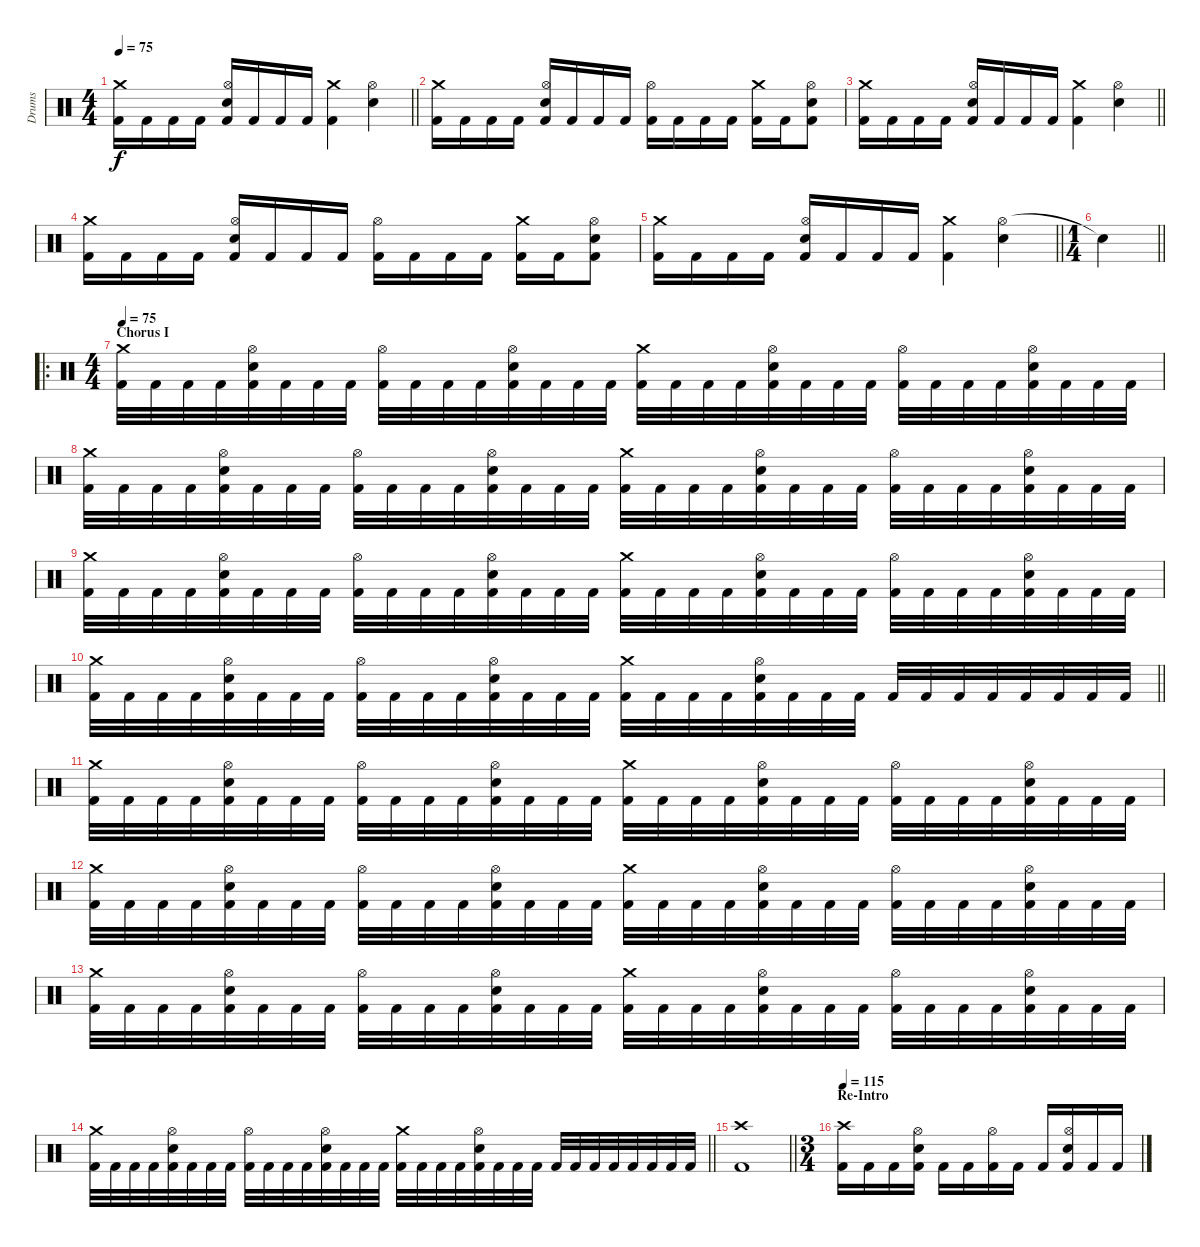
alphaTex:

\track ("Drums" "Drums") {instrument percussion}
\staff {score}
\articulation defaults
\ts (4 4)
\tempo 75
\clef neutral
\barLineRight lightlight
\ks c
("Crash medium (hit)" "Kick (hit) 2").16{dy f} "Kick (hit) 2".16 "Kick (hit) 2".16 "Kick (hit) 2".16 ("Hi-Hat (open)" "Snare (hit) 2" "Kick (hit) 2").16 "Kick (hit) 2".16 "Kick (hit) 2".16 "Kick (hit) 2".16 ("Crash medium (hit)" "Kick (hit) 2").4 ("Hi-Hat (open)" "Snare (hit) 2").4 |
("Crash medium (hit)" "Kick (hit) 2").16 "Kick (hit) 2".16 "Kick (hit) 2".16 "Kick (hit) 2".16 ("Hi-Hat (open)" "Snare (hit) 2" "Kick (hit) 2").16 "Kick (hit) 2".16 "Kick (hit) 2".16 "Kick (hit) 2".16 ("Hi-Hat (open)" "Kick (hit) 2").16 "Kick (hit) 2".16 "Kick (hit) 2".16 "Kick (hit) 2".16 ("Crash medium (hit)" "Kick (hit) 2").16 "Kick (hit) 2".16 ("Hi-Hat (open)" "Snare (hit) 2" "Kick (hit) 2").8 |
\barLineRight lightlight
("Crash medium (hit)" "Kick (hit) 2").16 "Kick (hit) 2".16 "Kick (hit) 2".16 "Kick (hit) 2".16 ("Hi-Hat (open)" "Snare (hit) 2" "Kick (hit) 2").16 "Kick (hit) 2".16 "Kick (hit) 2".16 "Kick (hit) 2".16 ("Crash medium (hit)" "Kick (hit) 2").4 ("Hi-Hat (open)" "Snare (hit) 2").4 |
("Crash medium (hit)" "Kick (hit) 2").16 "Kick (hit) 2".16 "Kick (hit) 2".16 "Kick (hit) 2".16 ("Hi-Hat (open)" "Snare (hit) 2" "Kick (hit) 2").16 "Kick (hit) 2".16 "Kick (hit) 2".16 "Kick (hit) 2".16 ("Hi-Hat (open)" "Kick (hit) 2").16 "Kick (hit) 2".16 "Kick (hit) 2".16 "Kick (hit) 2".16 ("Crash medium (hit)" "Kick (hit) 2").16 "Kick (hit) 2".16 ("Hi-Hat (open)" "Snare (hit) 2" "Kick (hit) 2").8 |
\barLineRight lightlight
("Crash medium (hit)" "Kick (hit) 2").16 "Kick (hit) 2".16 "Kick (hit) 2".16 "Kick (hit) 2".16 ("Hi-Hat (open)" "Snare (hit) 2" "Kick (hit) 2").16 "Kick (hit) 2".16 "Kick (hit) 2".16 "Kick (hit) 2".16 ("Crash medium (hit)" "Kick (hit) 2").4 ("Hi-Hat (open)" "Snare (hit) 2").4 |
\ts (1 4)
\barLineRight lightlight "Snare (hit)"{t}.4
|
\ro
\ts (4 4)
\section ("" "Chorus I")
\tempo 75
("Crash medium (hit)" "Kick (hit) 2").32 "Kick (hit) 2".32 "Kick (hit) 2".32 "Kick (hit) 2".32 ("Hi-Hat (open)" "Snare (hit) 2" "Kick (hit) 2").32 "Kick (hit) 2".32 "Kick (hit) 2".32 "Kick (hit) 2".32 ("Hi-Hat (open)" "Kick (hit) 2").32 "Kick (hit) 2".32 "Kick (hit) 2".32 "Kick (hit) 2".32 ("Hi-Hat (open)" "Snare (hit) 2" "Kick (hit) 2").32 "Kick (hit) 2".32 "Kick (hit) 2".32 "Kick (hit) 2".32 ("Crash medium (hit)" "Kick (hit) 2").32 "Kick (hit) 2".32 "Kick (hit) 2".32 "Kick (hit) 2".32 ("Hi-Hat (open)" "Snare (hit) 2" "Kick (hit) 2").32 "Kick (hit) 2".32 "Kick (hit) 2".32 "Kick (hit) 2".32 ("Hi-Hat (open)" "Kick (hit) 2").32 "Kick (hit) 2".32 "Kick (hit) 2".32 "Kick (hit) 2".32 ("Hi-Hat (open)" "Snare (hit) 2" "Kick (hit) 2").32 "Kick (hit) 2".32 "Kick (hit) 2".32 "Kick (hit) 2".32 |
("Crash medium (hit)" "Kick (hit) 2").32 "Kick (hit) 2".32 "Kick (hit) 2".32 "Kick (hit) 2".32 ("Hi-Hat (open)" "Snare (hit) 2" "Kick (hit) 2").32 "Kick (hit) 2".32 "Kick (hit) 2".32 "Kick (hit) 2".32 ("Hi-Hat (open)" "Kick (hit) 2").32 "Kick (hit) 2".32 "Kick (hit) 2".32 "Kick (hit) 2".32 ("Hi-Hat (open)" "Snare (hit) 2" "Kick (hit) 2").32 "Kick (hit) 2".32 "Kick (hit) 2".32 "Kick (hit) 2".32 ("Crash medium (hit)" "Kick (hit) 2").32 "Kick (hit) 2".32 "Kick (hit) 2".32 "Kick (hit) 2".32 ("Hi-Hat (open)" "Snare (hit) 2" "Kick (hit) 2").32 "Kick (hit) 2".32 "Kick (hit) 2".32 "Kick (hit) 2".32 ("Hi-Hat (open)" "Kick (hit) 2").32 "Kick (hit) 2".32 "Kick (hit) 2".32 "Kick (hit) 2".32 ("Hi-Hat (open)" "Snare (hit) 2" "Kick (hit) 2").32 "Kick (hit) 2".32 "Kick (hit) 2".32 "Kick (hit) 2".32 |
("Crash medium (hit)" "Kick (hit) 2").32 "Kick (hit) 2".32 "Kick (hit) 2".32 "Kick (hit) 2".32 ("Hi-Hat (open)" "Snare (hit) 2" "Kick (hit) 2").32 "Kick (hit) 2".32 "Kick (hit) 2".32 "Kick (hit) 2".32 ("Hi-Hat (open)" "Kick (hit) 2").32 "Kick (hit) 2".32 "Kick (hit) 2".32 "Kick (hit) 2".32 ("Hi-Hat (open)" "Snare (hit) 2" "Kick (hit) 2").32 "Kick (hit) 2".32 "Kick (hit) 2".32 "Kick (hit) 2".32 ("Crash medium (hit)" "Kick (hit) 2").32 "Kick (hit) 2".32 "Kick (hit) 2".32 "Kick (hit) 2".32 ("Hi-Hat (open)" "Snare (hit) 2" "Kick (hit) 2").32 "Kick (hit) 2".32 "Kick (hit) 2".32 "Kick (hit) 2".32 ("Hi-Hat (open)" "Kick (hit) 2").32 "Kick (hit) 2".32 "Kick (hit) 2".32 "Kick (hit) 2".32 ("Hi-Hat (open)" "Snare (hit) 2" "Kick (hit) 2").32 "Kick (hit) 2".32 "Kick (hit) 2".32 "Kick (hit) 2".32 |
\barLineRight lightlight
("Crash medium (hit)" "Kick (hit) 2").32 "Kick (hit) 2".32 "Kick (hit) 2".32 "Kick (hit) 2".32 ("Hi-Hat (open)" "Snare (hit) 2" "Kick (hit) 2").32 "Kick (hit) 2".32 "Kick (hit) 2".32 "Kick (hit) 2".32 ("Hi-Hat (open)" "Kick (hit) 2").32 "Kick (hit) 2".32 "Kick (hit) 2".32 "Kick (hit) 2".32 ("Hi-Hat (open)" "Snare (hit) 2" "Kick (hit) 2").32 "Kick (hit) 2".32 "Kick (hit) 2".32 "Kick (hit) 2".32 ("Crash medium (hit)" "Kick (hit) 2").32 "Kick (hit) 2".32 "Kick (hit) 2".32 "Kick (hit) 2".32 ("Hi-Hat (open)" "Snare (hit) 2" "Kick (hit) 2").32 "Kick (hit) 2".32 "Kick (hit) 2".32 "Kick (hit) 2".32 "Kick (hit) 2".32 "Kick (hit) 2".32 "Kick (hit) 2".32 "Kick (hit) 2".32 "Kick (hit) 2".32 "Kick (hit) 2".32 "Kick (hit) 2".32 "Kick (hit) 2".32 |
("Crash medium (hit)" "Kick (hit) 2").32 "Kick (hit) 2".32 "Kick (hit) 2".32 "Kick (hit) 2".32 ("Hi-Hat (open)" "Snare (hit) 2" "Kick (hit) 2").32 "Kick (hit) 2".32 "Kick (hit) 2".32 "Kick (hit) 2".32 ("Hi-Hat (open)" "Kick (hit) 2").32 "Kick (hit) 2".32 "Kick (hit) 2".32 "Kick (hit) 2".32 ("Hi-Hat (open)" "Snare (hit) 2" "Kick (hit) 2").32 "Kick (hit) 2".32 "Kick (hit) 2".32 "Kick (hit) 2".32 ("Crash medium (hit)" "Kick (hit) 2").32 "Kick (hit) 2".32 "Kick (hit) 2".32 "Kick (hit) 2".32 ("Hi-Hat (open)" "Snare (hit) 2" "Kick (hit) 2").32 "Kick (hit) 2".32 "Kick (hit) 2".32 "Kick (hit) 2".32 ("Hi-Hat (open)" "Kick (hit) 2").32 "Kick (hit) 2".32 "Kick (hit) 2".32 "Kick (hit) 2".32 ("Hi-Hat (open)" "Snare (hit) 2" "Kick (hit) 2").32 "Kick (hit) 2".32 "Kick (hit) 2".32 "Kick (hit) 2".32 |
("Crash medium (hit)" "Kick (hit) 2").32 "Kick (hit) 2".32 "Kick (hit) 2".32 "Kick (hit) 2".32 ("Hi-Hat (open)" "Snare (hit) 2" "Kick (hit) 2").32 "Kick (hit) 2".32 "Kick (hit) 2".32 "Kick (hit) 2".32 ("Hi-Hat (open)" "Kick (hit) 2").32 "Kick (hit) 2".32 "Kick (hit) 2".32 "Kick (hit) 2".32 ("Hi-Hat (open)" "Snare (hit) 2" "Kick (hit) 2").32 "Kick (hit) 2".32 "Kick (hit) 2".32 "Kick (hit) 2".32 ("Crash medium (hit)" "Kick (hit) 2").32 "Kick (hit) 2".32 "Kick (hit) 2".32 "Kick (hit) 2".32 ("Hi-Hat (open)" "Snare (hit) 2" "Kick (hit) 2").32 "Kick (hit) 2".32 "Kick (hit) 2".32 "Kick (hit) 2".32 ("Hi-Hat (open)" "Kick (hit) 2").32 "Kick (hit) 2".32 "Kick (hit) 2".32 "Kick (hit) 2".32 ("Hi-Hat (open)" "Snare (hit) 2" "Kick (hit) 2").32 "Kick (hit) 2".32 "Kick (hit) 2".32 "Kick (hit) 2".32 |
("Crash medium (hit)" "Kick (hit) 2").32 "Kick (hit) 2".32 "Kick (hit) 2".32 "Kick (hit) 2".32 ("Hi-Hat (open)" "Snare (hit) 2" "Kick (hit) 2").32 "Kick (hit) 2".32 "Kick (hit) 2".32 "Kick (hit) 2".32 ("Hi-Hat (open)" "Kick (hit) 2").32 "Kick (hit) 2".32 "Kick (hit) 2".32 "Kick (hit) 2".32 ("Hi-Hat (open)" "Snare (hit) 2" "Kick (hit) 2").32 "Kick (hit) 2".32 "Kick (hit) 2".32 "Kick (hit) 2".32 ("Crash medium (hit)" "Kick (hit) 2").32 "Kick (hit) 2".32 "Kick (hit) 2".32 "Kick (hit) 2".32 ("Hi-Hat (open)" "Snare (hit) 2" "Kick (hit) 2").32 "Kick (hit) 2".32 "Kick (hit) 2".32 "Kick (hit) 2".32 ("Hi-Hat (open)" "Kick (hit) 2").32 "Kick (hit) 2".32 "Kick (hit) 2".32 "Kick (hit) 2".32 ("Hi-Hat (open)" "Snare (hit) 2" "Kick (hit) 2").32 "Kick (hit) 2".32 "Kick (hit) 2".32 "Kick (hit) 2".32 |
\barLineRight lightlight
("Crash medium (hit)" "Kick (hit) 2").32 "Kick (hit) 2".32 "Kick (hit) 2".32 "Kick (hit) 2".32 ("Hi-Hat (open)" "Snare (hit) 2" "Kick (hit) 2").32 "Kick (hit) 2".32 "Kick (hit) 2".32 "Kick (hit) 2".32 ("Hi-Hat (open)" "Kick (hit) 2").32 "Kick (hit) 2".32 "Kick (hit) 2".32 "Kick (hit) 2".32 ("Hi-Hat (open)" "Snare (hit) 2" "Kick (hit) 2").32 "Kick (hit) 2".32 "Kick (hit) 2".32 "Kick (hit) 2".32 ("Crash medium (hit)" "Kick (hit) 2").32 "Kick (hit) 2".32 "Kick (hit) 2".32 "Kick (hit) 2".32 ("Hi-Hat (open)" "Snare (hit) 2" "Kick (hit) 2").32 "Kick (hit) 2".32 "Kick (hit) 2".32 "Kick (hit) 2".32 "Kick (hit) 2".32 "Kick (hit) 2".32 "Kick (hit) 2".32 "Kick (hit) 2".32 "Kick (hit) 2".32 "Kick (hit) 2".32 "Kick (hit) 2".32 "Kick (hit) 2".32 |
\barLineRight lightlight
("Crash high (hit)" "Kick (hit) 2").1 |
\ts (3 4)
\section ("" "Re-Intro")
\tempo 115
("Crash high (hit)" "Kick (hit) 2").16 "Kick (hit) 2".16 "Kick (hit) 2".16 ("Hi-Hat (open)" "Snare (hit) 2" "Kick (hit) 2").16 "Kick (hit) 2".16 "Kick (hit) 2".16 ("Hi-Hat (open)" "Kick (hit) 2").16 "Kick (hit) 2".16 "Kick (hit) 2".16 ("Hi-Hat (open)" "Snare (hit) 2" "Kick (hit) 2").16 "Kick (hit) 2".16 "Kick (hit) 2".16
